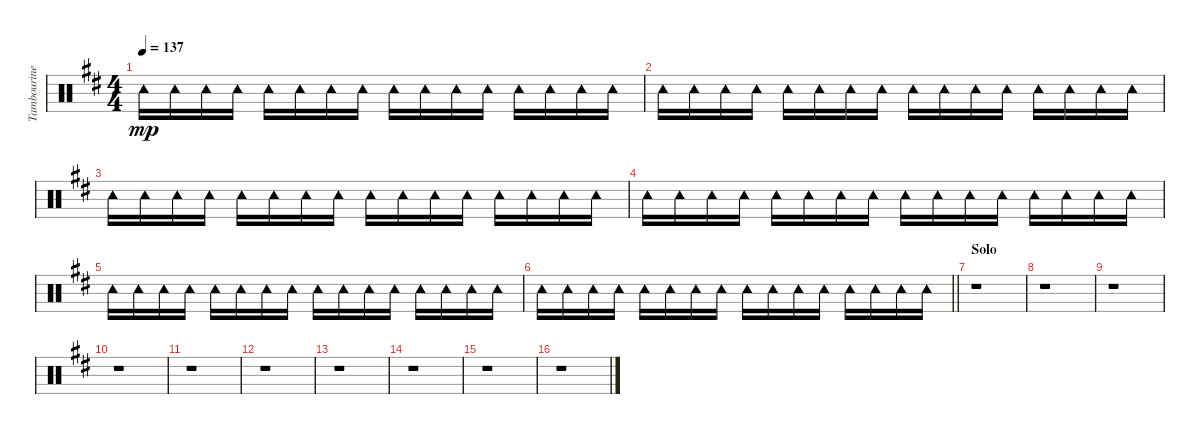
\track ("Tambourine" "Tambourine") {instrument percussion}
\staff {score}
\articulation defaults
\ts (4 4)
\tempo 137
\clef neutral
\ks d "Tambourine (hit)".16{dy mp} "Tambourine (hit)".16 "Tambourine (hit)".16 "Tambourine (hit)".16 "Tambourine (hit)".16 "Tambourine (hit)".16 "Tambourine (hit)".16 "Tambourine (hit)".16 "Tambourine (hit)".16 "Tambourine (hit)".16 "Tambourine (hit)".16 "Tambourine (hit)".16 "Tambourine (hit)".16 "Tambourine (hit)".16 "Tambourine (hit)".16 "Tambourine (hit)".16
|
"Tambourine (hit)".16 "Tambourine (hit)".16 "Tambourine (hit)".16 "Tambourine (hit)".16 "Tambourine (hit)".16 "Tambourine (hit)".16 "Tambourine (hit)".16 "Tambourine (hit)".16 "Tambourine (hit)".16 "Tambourine (hit)".16 "Tambourine (hit)".16 "Tambourine (hit)".16 "Tambourine (hit)".16 "Tambourine (hit)".16 "Tambourine (hit)".16 "Tambourine (hit)".16 |
"Tambourine (hit)".16 "Tambourine (hit)".16 "Tambourine (hit)".16 "Tambourine (hit)".16 "Tambourine (hit)".16 "Tambourine (hit)".16 "Tambourine (hit)".16 "Tambourine (hit)".16 "Tambourine (hit)".16 "Tambourine (hit)".16 "Tambourine (hit)".16 "Tambourine (hit)".16 "Tambourine (hit)".16 "Tambourine (hit)".16 "Tambourine (hit)".16 "Tambourine (hit)".16 |
"Tambourine (hit)".16 "Tambourine (hit)".16 "Tambourine (hit)".16 "Tambourine (hit)".16 "Tambourine (hit)".16 "Tambourine (hit)".16 "Tambourine (hit)".16 "Tambourine (hit)".16 "Tambourine (hit)".16 "Tambourine (hit)".16 "Tambourine (hit)".16 "Tambourine (hit)".16 "Tambourine (hit)".16 "Tambourine (hit)".16 "Tambourine (hit)".16 "Tambourine (hit)".16 |
"Tambourine (hit)".16 "Tambourine (hit)".16 "Tambourine (hit)".16 "Tambourine (hit)".16 "Tambourine (hit)".16 "Tambourine (hit)".16 "Tambourine (hit)".16 "Tambourine (hit)".16 "Tambourine (hit)".16 "Tambourine (hit)".16 "Tambourine (hit)".16 "Tambourine (hit)".16 "Tambourine (hit)".16 "Tambourine (hit)".16 "Tambourine (hit)".16 "Tambourine (hit)".16 |
\barLineRight lightlight "Tambourine (hit)".16 "Tambourine (hit)".16 "Tambourine (hit)".16 "Tambourine (hit)".16 "Tambourine (hit)".16 "Tambourine (hit)".16 "Tambourine (hit)".16 "Tambourine (hit)".16 "Tambourine (hit)".16 "Tambourine (hit)".16 "Tambourine (hit)".16 "Tambourine (hit)".16 "Tambourine (hit)".16 "Tambourine (hit)".16 "Tambourine (hit)".16 "Tambourine (hit)".16
|
\section ("" "Solo")
r.1 |
r.1 |
r.1 |
r.1 |
r.1 |
r.1 |
r.1 |
r.1 |
r.1 |
r.1
